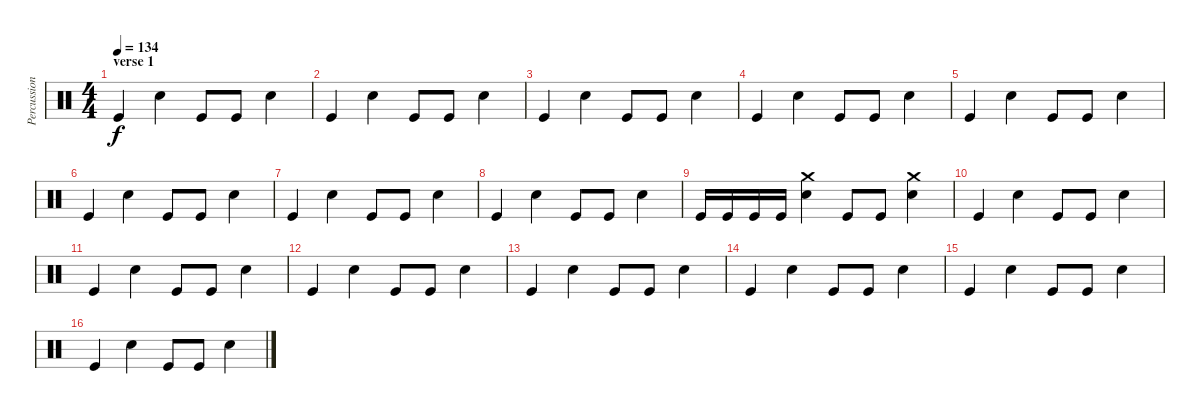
\track ("Percussion" "Percussion") {instrument percussion}
\staff {score}
\articulation defaults
\ts (4 4)
\section ("" "verse 1")
\tempo 134
\clef neutral
\ks c "Kick (hit)".4{dy f} "Snare (hit) 2".4 "Kick (hit)".8 "Kick (hit)".8 "Snare (hit) 2".4
|
"Kick (hit)".4 "Snare (hit) 2".4 "Kick (hit)".8 "Kick (hit)".8 "Snare (hit) 2".4 |
"Kick (hit)".4 "Snare (hit) 2".4 "Kick (hit)".8 "Kick (hit)".8 "Snare (hit) 2".4 |
"Kick (hit)".4 "Snare (hit) 2".4 "Kick (hit)".8 "Kick (hit)".8 "Snare (hit) 2".4 |
"Kick (hit)".4 "Snare (hit) 2".4 "Kick (hit)".8 "Kick (hit)".8 "Snare (hit) 2".4 |
"Kick (hit)".4 "Snare (hit) 2".4 "Kick (hit)".8 "Kick (hit)".8 "Snare (hit) 2".4 |
"Kick (hit)".4 "Snare (hit) 2".4 "Kick (hit)".8 "Kick (hit)".8 "Snare (hit) 2".4 |
"Kick (hit)".4 "Snare (hit) 2".4 "Kick (hit)".8 "Kick (hit)".8 "Snare (hit) 2".4 |
"Kick (hit)".16 "Kick (hit)".16 "Kick (hit)".16 "Kick (hit)".16 ("Snare (hit) 2" "Crash medium (hit)").4 "Kick (hit)".8 "Kick (hit)".8 ("Snare (hit) 2" "Crash medium (hit)").4 |
"Kick (hit)".4 "Snare (hit) 2".4 "Kick (hit)".8 "Kick (hit)".8 "Snare (hit) 2".4 |
"Kick (hit)".4 "Snare (hit) 2".4 "Kick (hit)".8 "Kick (hit)".8 "Snare (hit) 2".4 |
"Kick (hit)".4 "Snare (hit) 2".4 "Kick (hit)".8 "Kick (hit)".8 "Snare (hit) 2".4 |
"Kick (hit)".4 "Snare (hit) 2".4 "Kick (hit)".8 "Kick (hit)".8 "Snare (hit) 2".4 |
"Kick (hit)".4 "Snare (hit) 2".4 "Kick (hit)".8 "Kick (hit)".8 "Snare (hit) 2".4 |
"Kick (hit)".4 "Snare (hit) 2".4 "Kick (hit)".8 "Kick (hit)".8 "Snare (hit) 2".4 |
"Kick (hit)".4 "Snare (hit) 2".4 "Kick (hit)".8 "Kick (hit)".8 "Snare (hit) 2".4
